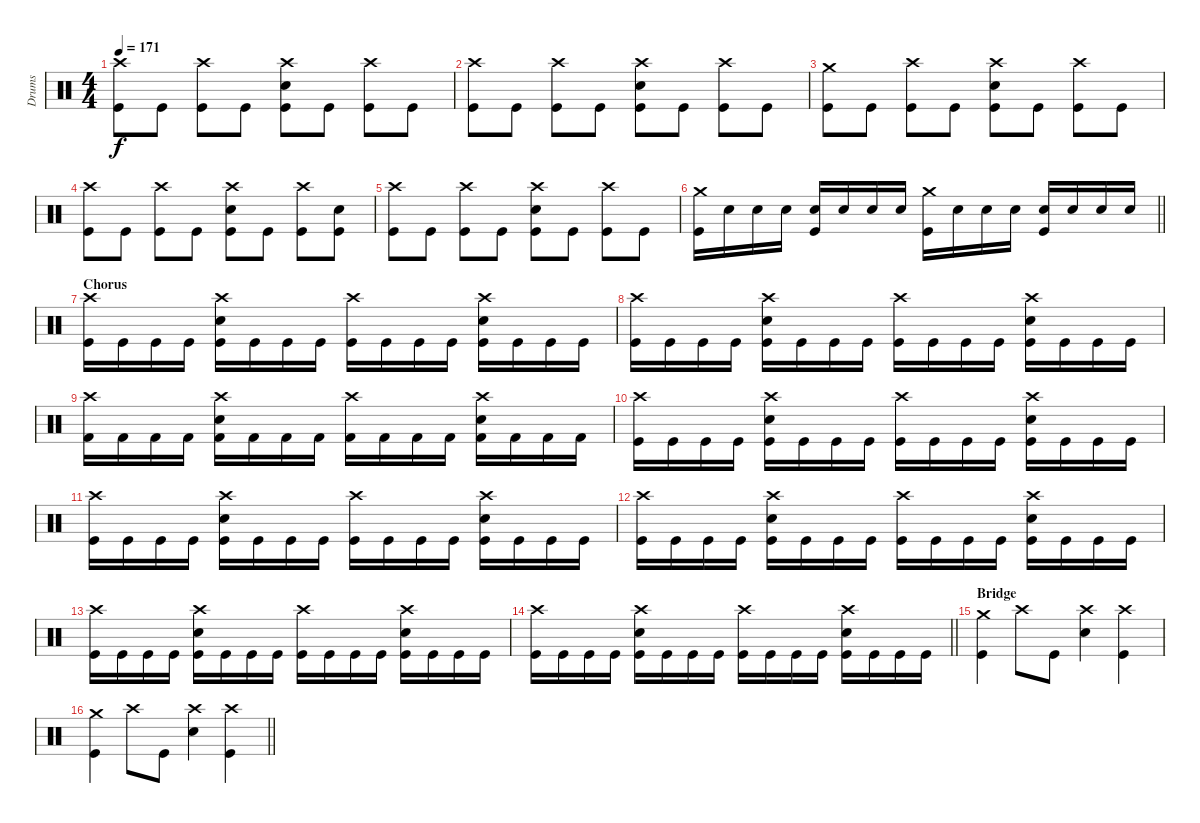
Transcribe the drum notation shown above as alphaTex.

\track ("Drums" "Drums") {instrument percussion}
\staff {score}
\articulation defaults
\ts (4 4)
\tempo 171
\clef neutral
\ks c
("Crash high (hit)" "Kick (hit)").8{dy f} "Kick (hit)".8 ("Crash high (hit)" "Kick (hit)").8 "Kick (hit)".8 ("Crash high (hit)" "Snare (hit) 2" "Kick (hit)").8 "Kick (hit)".8 ("Crash high (hit)" "Kick (hit)").8 "Kick (hit)".8 |
("Crash high (hit)" "Kick (hit)").8 "Kick (hit)".8 ("Crash high (hit)" "Kick (hit)").8 "Kick (hit)".8 ("Crash high (hit)" "Snare (hit) 2" "Kick (hit)").8 "Kick (hit)".8 ("Crash high (hit)" "Kick (hit)").8 "Kick (hit)".8 |
("Crash medium (hit)" "Kick (hit)").8 "Kick (hit)".8 ("Crash high (hit)" "Kick (hit)").8 "Kick (hit)".8 ("Crash high (hit)" "Snare (hit) 2" "Kick (hit)").8 "Kick (hit)".8 ("Crash high (hit)" "Kick (hit)").8 "Kick (hit)".8 |
("Crash high (hit)" "Kick (hit)").8 "Kick (hit)".8 ("Crash high (hit)" "Kick (hit)").8 "Kick (hit)".8 ("Crash high (hit)" "Snare (hit) 2" "Kick (hit)").8 "Kick (hit)".8 ("Crash high (hit)" "Kick (hit)").8 ("Snare (hit) 2" "Kick (hit)").8 |
("Crash high (hit)" "Kick (hit)").8 "Kick (hit)".8 ("Crash high (hit)" "Kick (hit)").8 "Kick (hit)".8 ("Crash high (hit)" "Snare (hit) 2" "Kick (hit)").8 "Kick (hit)".8 ("Crash high (hit)" "Kick (hit)").8 "Kick (hit)".8 |
\barLineRight lightlight
("Crash medium (hit)" "Kick (hit)").16 "Snare (hit) 2".16 "Snare (hit) 2".16 "Snare (hit) 2".16 ("Snare (hit) 2" "Kick (hit)").16 "Snare (hit) 2".16 "Snare (hit) 2".16 "Snare (hit) 2".16 ("Crash medium (hit)" "Kick (hit)").16 "Snare (hit) 2".16 "Snare (hit) 2".16 "Snare (hit) 2".16 ("Snare (hit) 2" "Kick (hit)").16 "Snare (hit) 2".16 "Snare (hit) 2".16 "Snare (hit) 2".16 |
\section ("" "Chorus")
("Crash high (hit)" "Kick (hit)").16 "Kick (hit)".16 "Kick (hit)".16 "Kick (hit)".16 ("Crash high (hit)" "Snare (hit) 2" "Kick (hit)").16 "Kick (hit)".16 "Kick (hit)".16 "Kick (hit)".16 ("Crash high (hit)" "Kick (hit)").16 "Kick (hit)".16 "Kick (hit)".16 "Kick (hit)".16 ("Crash high (hit)" "Snare (hit) 2" "Kick (hit)").16 "Kick (hit)".16 "Kick (hit)".16 "Kick (hit)".16 |
("Crash high (hit)" "Kick (hit)").16 "Kick (hit)".16 "Kick (hit)".16 "Kick (hit)".16 ("Crash high (hit)" "Snare (hit) 2" "Kick (hit)").16 "Kick (hit)".16 "Kick (hit)".16 "Kick (hit)".16 ("Crash high (hit)" "Kick (hit)").16 "Kick (hit)".16 "Kick (hit)".16 "Kick (hit)".16 ("Crash high (hit)" "Snare (hit) 2" "Kick (hit)").16 "Kick (hit)".16 "Kick (hit)".16 "Kick (hit)".16 |
("Crash high (hit)" "Kick (hit) 2").16 "Kick (hit) 2".16 "Kick (hit) 2".16 "Kick (hit) 2".16 ("Crash high (hit)" "Electric Snare (hit)" "Kick (hit) 2").16 "Kick (hit) 2".16 "Kick (hit) 2".16 "Kick (hit) 2".16 ("Crash high (hit)" "Kick (hit) 2").16 "Kick (hit) 2".16 "Kick (hit) 2".16 "Kick (hit) 2".16 ("Crash high (hit)" "Electric Snare (hit)" "Kick (hit) 2").16 "Kick (hit) 2".16 "Kick (hit) 2".16 "Kick (hit) 2".16 |
("Crash high (hit)" "Kick (hit)").16 "Kick (hit)".16 "Kick (hit)".16 "Kick (hit)".16 ("Crash high (hit)" "Snare (hit) 2" "Kick (hit)").16 "Kick (hit)".16 "Kick (hit)".16 "Kick (hit)".16 ("Crash high (hit)" "Kick (hit)").16 "Kick (hit)".16 "Kick (hit)".16 "Kick (hit)".16 ("Crash high (hit)" "Snare (hit) 2" "Kick (hit)").16 "Kick (hit)".16 "Kick (hit)".16 "Kick (hit)".16 |
("Crash high (hit)" "Kick (hit)").16 "Kick (hit)".16 "Kick (hit)".16 "Kick (hit)".16 ("Crash high (hit)" "Snare (hit) 2" "Kick (hit)").16 "Kick (hit)".16 "Kick (hit)".16 "Kick (hit)".16 ("Crash high (hit)" "Kick (hit)").16 "Kick (hit)".16 "Kick (hit)".16 "Kick (hit)".16 ("Crash high (hit)" "Snare (hit) 2" "Kick (hit)").16 "Kick (hit)".16 "Kick (hit)".16 "Kick (hit)".16 |
("Crash high (hit)" "Kick (hit)").16 "Kick (hit)".16 "Kick (hit)".16 "Kick (hit)".16 ("Crash high (hit)" "Snare (hit) 2" "Kick (hit)").16 "Kick (hit)".16 "Kick (hit)".16 "Kick (hit)".16 ("Crash high (hit)" "Kick (hit)").16 "Kick (hit)".16 "Kick (hit)".16 "Kick (hit)".16 ("Crash high (hit)" "Snare (hit) 2" "Kick (hit)").16 "Kick (hit)".16 "Kick (hit)".16 "Kick (hit)".16 |
("Crash high (hit)" "Kick (hit)").16 "Kick (hit)".16 "Kick (hit)".16 "Kick (hit)".16 ("Crash high (hit)" "Snare (hit) 2" "Kick (hit)").16 "Kick (hit)".16 "Kick (hit)".16 "Kick (hit)".16 ("Crash high (hit)" "Kick (hit)").16 "Kick (hit)".16 "Kick (hit)".16 "Kick (hit)".16 ("Crash high (hit)" "Snare (hit) 2" "Kick (hit)").16 "Kick (hit)".16 "Kick (hit)".16 "Kick (hit)".16 |
\barLineRight lightlight
("Crash high (hit)" "Kick (hit)").16 "Kick (hit)".16 "Kick (hit)".16 "Kick (hit)".16 ("Crash high (hit)" "Snare (hit) 2" "Kick (hit)").16 "Kick (hit)".16 "Kick (hit)".16 "Kick (hit)".16 ("Crash high (hit)" "Kick (hit)").16 "Kick (hit)".16 "Kick (hit)".16 "Kick (hit)".16 ("Crash high (hit)" "Snare (hit) 2" "Kick (hit)").16 "Kick (hit)".16 "Kick (hit)".16 "Kick (hit)".16 |
\section ("" "Bridge")
("Crash medium (hit)" "Kick (hit)").4 "Crash high (hit)".8 "Kick (hit)".8 ("Crash high (hit)" "Snare (hit) 2").4 ("Crash high (hit)" "Kick (hit)").4 |
\barLineRight lightlight
("Crash medium (hit)" "Kick (hit)").4 "Crash high (hit)".8 "Kick (hit)".8 ("Crash high (hit)" "Snare (hit) 2").4 ("Crash high (hit)" "Kick (hit)").4
